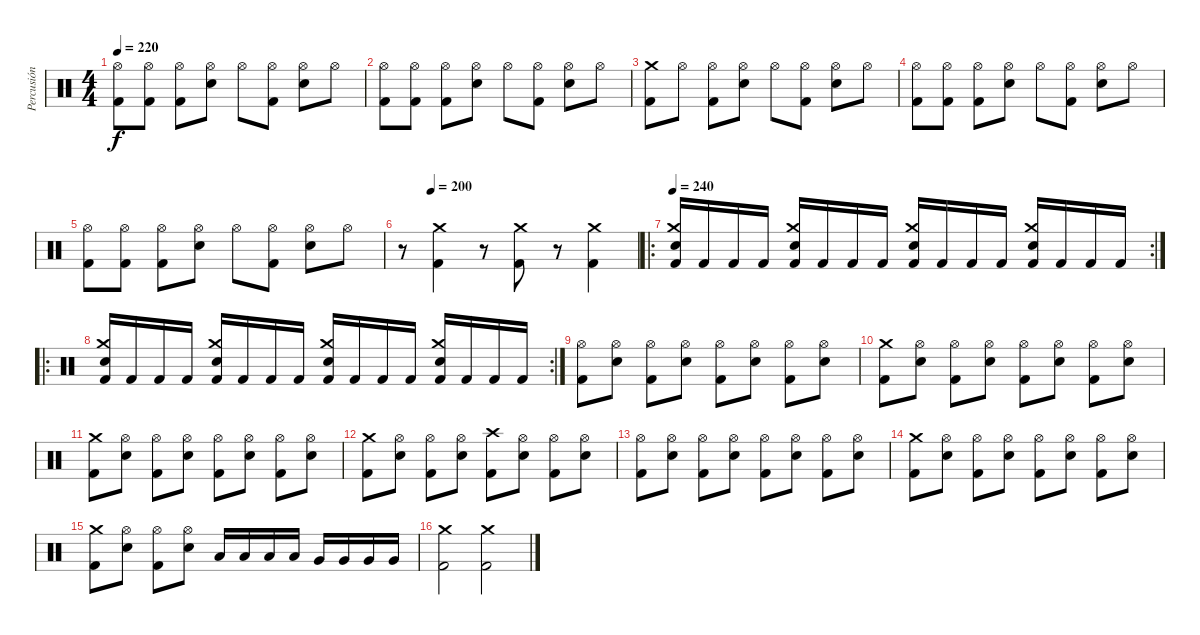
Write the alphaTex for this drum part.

\track ("Percusión" "Percusión") {instrument percussion}
\staff {score}
\articulation defaults
\ts (4 4)
\tempo 220
\clef neutral
\ks c
("Hi-Hat (open)" "Kick (hit) 2").8{dy f} ("Hi-Hat (open)" "Kick (hit) 2").8 ("Hi-Hat (open)" "Kick (hit) 2").8 ("Hi-Hat (open)" "Snare (hit) 2").8 "Hi-Hat (open)".8 ("Hi-Hat (open)" "Kick (hit) 2").8 ("Hi-Hat (open)" "Snare (hit) 2").8 "Hi-Hat (open)".8 |
("Hi-Hat (open)" "Kick (hit) 2").8 ("Hi-Hat (open)" "Kick (hit) 2").8 ("Hi-Hat (open)" "Kick (hit) 2").8 ("Hi-Hat (open)" "Snare (hit) 2").8 "Hi-Hat (open)".8 ("Hi-Hat (open)" "Kick (hit) 2").8 ("Hi-Hat (open)" "Snare (hit) 2").8 "Hi-Hat (open)".8 |
("Crash medium (hit)" "Kick (hit) 2").8 "Hi-Hat (open)".8 ("Hi-Hat (open)" "Kick (hit) 2").8 ("Hi-Hat (open)" "Snare (hit) 2").8 "Hi-Hat (open)".8 ("Hi-Hat (open)" "Kick (hit) 2").8 ("Hi-Hat (open)" "Snare (hit) 2").8 "Hi-Hat (open)".8 |
("Hi-Hat (open)" "Kick (hit) 2").8 ("Hi-Hat (open)" "Kick (hit) 2").8 ("Hi-Hat (open)" "Kick (hit) 2").8 ("Hi-Hat (open)" "Snare (hit) 2").8 "Hi-Hat (open)".8 ("Hi-Hat (open)" "Kick (hit) 2").8 ("Hi-Hat (open)" "Snare (hit) 2").8 "Hi-Hat (open)".8 |
("Hi-Hat (open)" "Kick (hit) 2").8 ("Hi-Hat (open)" "Kick (hit) 2").8 ("Hi-Hat (open)" "Kick (hit) 2").8 ("Hi-Hat (open)" "Snare (hit) 2").8 "Hi-Hat (open)".8 ("Hi-Hat (open)" "Kick (hit) 2").8 ("Hi-Hat (open)" "Snare (hit) 2").8 "Hi-Hat (open)".8 |
\tempo (200 0.125)
r.8 ("Crash medium (hit)" "Kick (hit) 2").4 r.8 ("Crash medium (hit)" "Kick (hit) 2").8 r.8 ("Crash medium (hit)" "Kick (hit) 2").4 |
\ro
\rc 2
\tempo 240
("Crash medium (hit)" "Electric Snare (hit)" "Kick (hit) 2").16 "Kick (hit) 2".16 "Kick (hit) 2".16 "Kick (hit) 2".16 ("Crash medium (hit)" "Electric Snare (hit)" "Kick (hit) 2").16 "Kick (hit) 2".16 "Kick (hit) 2".16 "Kick (hit) 2".16 ("Crash medium (hit)" "Electric Snare (hit)" "Kick (hit) 2").16 "Kick (hit) 2".16 "Kick (hit) 2".16 "Kick (hit) 2".16 ("Crash medium (hit)" "Electric Snare (hit)" "Kick (hit) 2").16 "Kick (hit) 2".16 "Kick (hit) 2".16 "Kick (hit) 2".16 |
\ro
\rc 2
("Crash medium (hit)" "Electric Snare (hit)" "Kick (hit) 2").16 "Kick (hit) 2".16 "Kick (hit) 2".16 "Kick (hit) 2".16 ("Crash medium (hit)" "Electric Snare (hit)" "Kick (hit) 2").16 "Kick (hit) 2".16 "Kick (hit) 2".16 "Kick (hit) 2".16 ("Crash medium (hit)" "Electric Snare (hit)" "Kick (hit) 2").16 "Kick (hit) 2".16 "Kick (hit) 2".16 "Kick (hit) 2".16 ("Crash medium (hit)" "Electric Snare (hit)" "Kick (hit) 2").16 "Kick (hit) 2".16 "Kick (hit) 2".16 "Kick (hit) 2".16 |
("Hi-Hat (open)" "Kick (hit) 2").8 ("Hi-Hat (open)" "Electric Snare (hit)").8 ("Hi-Hat (open)" "Kick (hit) 2").8 ("Hi-Hat (open)" "Electric Snare (hit)").8 ("Hi-Hat (open)" "Kick (hit) 2").8 ("Hi-Hat (open)" "Electric Snare (hit)").8 ("Hi-Hat (open)" "Kick (hit) 2").8 ("Hi-Hat (open)" "Electric Snare (hit)").8 |
("Crash medium (hit)" "Kick (hit) 2").8 ("Hi-Hat (open)" "Electric Snare (hit)").8 ("Hi-Hat (open)" "Kick (hit) 2").8 ("Hi-Hat (open)" "Electric Snare (hit)").8 ("Hi-Hat (open)" "Kick (hit) 2").8 ("Hi-Hat (open)" "Electric Snare (hit)").8 ("Hi-Hat (open)" "Kick (hit) 2").8 ("Hi-Hat (open)" "Electric Snare (hit)").8 |
("Crash medium (hit)" "Kick (hit) 2").8 ("Hi-Hat (open)" "Electric Snare (hit)").8 ("Hi-Hat (open)" "Kick (hit) 2").8 ("Hi-Hat (open)" "Electric Snare (hit)").8 ("Hi-Hat (open)" "Kick (hit) 2").8 ("Hi-Hat (open)" "Electric Snare (hit)").8 ("Hi-Hat (open)" "Kick (hit) 2").8 ("Hi-Hat (open)" "Electric Snare (hit)").8 |
("Crash medium (hit)" "Kick (hit) 2").8 ("Hi-Hat (open)" "Electric Snare (hit)").8 ("Hi-Hat (open)" "Kick (hit) 2").8 ("Hi-Hat (open)" "Electric Snare (hit)").8 ("Crash high (hit)" "Kick (hit) 2").8 ("Hi-Hat (open)" "Electric Snare (hit)").8 ("Hi-Hat (open)" "Kick (hit) 2").8 ("Hi-Hat (open)" "Electric Snare (hit)").8 |
("Hi-Hat (open)" "Kick (hit) 2").8 ("Hi-Hat (open)" "Electric Snare (hit)").8 ("Hi-Hat (open)" "Kick (hit) 2").8 ("Hi-Hat (open)" "Electric Snare (hit)").8 ("Hi-Hat (open)" "Kick (hit) 2").8 ("Hi-Hat (open)" "Electric Snare (hit)").8 ("Hi-Hat (open)" "Kick (hit) 2").8 ("Hi-Hat (open)" "Electric Snare (hit)").8 |
("Crash medium (hit)" "Kick (hit) 2").8 ("Hi-Hat (open)" "Electric Snare (hit)").8 ("Hi-Hat (open)" "Kick (hit) 2").8 ("Hi-Hat (open)" "Electric Snare (hit)").8 ("Hi-Hat (open)" "Kick (hit) 2").8 ("Hi-Hat (open)" "Electric Snare (hit)").8 ("Hi-Hat (open)" "Kick (hit) 2").8 ("Hi-Hat (open)" "Electric Snare (hit)").8 |
("Crash medium (hit)" "Kick (hit) 2").8 ("Hi-Hat (open)" "Electric Snare (hit)").8 ("Hi-Hat (open)" "Kick (hit) 2").8 ("Hi-Hat (open)" "Electric Snare (hit)").8 "Low Tom (hit)".16 "Low Tom (hit)".16 "Low Tom (hit)".16 "Low Tom (hit)".16 "Very Low Tom (hit)".16 "Very Low Tom (hit)".16 "Very Low Tom (hit)".16 "Very Low Tom (hit)".16 |
("Crash medium (hit)" "Kick (hit) 2").2 ("Crash medium (hit)" "Kick (hit) 2").2
